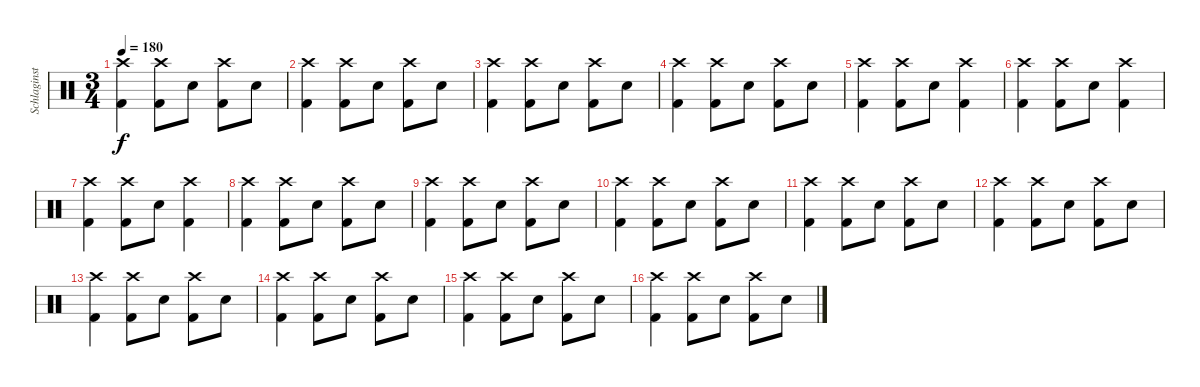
\track ("Schlaginstrumente - Auswahl" "Schlaginst") {instrument percussion}
\staff {score}
\articulation defaults
\ts (3 4)
\tempo 180
\clef neutral
\ks c
("Crash high (hit)" "Kick (hit) 2").4{dy f} ("Crash high (hit)" "Kick (hit) 2").8 "Snare (hit) 2".8 ("Crash high (hit)" "Kick (hit) 2").8 "Snare (hit) 2".8 |
("Crash high (hit)" "Kick (hit) 2").4 ("Crash high (hit)" "Kick (hit) 2").8 "Snare (hit) 2".8 ("Crash high (hit)" "Kick (hit) 2").8 "Snare (hit) 2".8 |
("Crash high (hit)" "Kick (hit) 2").4 ("Crash high (hit)" "Kick (hit) 2").8 "Snare (hit) 2".8 ("Crash high (hit)" "Kick (hit) 2").8 "Snare (hit) 2".8 |
("Crash high (hit)" "Kick (hit) 2").4 ("Crash high (hit)" "Kick (hit) 2").8 "Snare (hit) 2".8 ("Crash high (hit)" "Kick (hit) 2").8 "Snare (hit) 2".8 |
("Crash high (hit)" "Kick (hit) 2").4 ("Crash high (hit)" "Kick (hit) 2").8 "Snare (hit) 2".8 ("Crash high (hit)" "Kick (hit) 2").4 |
("Crash high (hit)" "Kick (hit) 2").4 ("Crash high (hit)" "Kick (hit) 2").8 "Snare (hit) 2".8 ("Crash high (hit)" "Kick (hit) 2").4 |
("Crash high (hit)" "Kick (hit) 2").4 ("Crash high (hit)" "Kick (hit) 2").8 "Snare (hit) 2".8 ("Crash high (hit)" "Kick (hit) 2").4 |
("Crash high (hit)" "Kick (hit) 2").4 ("Crash high (hit)" "Kick (hit) 2").8 "Snare (hit) 2".8 ("Crash high (hit)" "Kick (hit) 2").8 "Snare (hit) 2".8 |
("Crash high (hit)" "Kick (hit) 2").4 ("Crash high (hit)" "Kick (hit) 2").8 "Snare (hit) 2".8 ("Crash high (hit)" "Kick (hit) 2").8 "Snare (hit) 2".8 |
("Crash high (hit)" "Kick (hit) 2").4 ("Crash high (hit)" "Kick (hit) 2").8 "Snare (hit) 2".8 ("Crash high (hit)" "Kick (hit) 2").8 "Snare (hit) 2".8 |
("Crash high (hit)" "Kick (hit) 2").4 ("Crash high (hit)" "Kick (hit) 2").8 "Snare (hit) 2".8 ("Crash high (hit)" "Kick (hit) 2").8 "Snare (hit) 2".8 |
("Crash high (hit)" "Kick (hit) 2").4 ("Crash high (hit)" "Kick (hit) 2").8 "Snare (hit) 2".8 ("Crash high (hit)" "Kick (hit) 2").8 "Snare (hit) 2".8 |
("Crash high (hit)" "Kick (hit) 2").4 ("Crash high (hit)" "Kick (hit) 2").8 "Snare (hit) 2".8 ("Crash high (hit)" "Kick (hit) 2").8 "Snare (hit) 2".8 |
("Crash high (hit)" "Kick (hit) 2").4 ("Crash high (hit)" "Kick (hit) 2").8 "Snare (hit) 2".8 ("Crash high (hit)" "Kick (hit) 2").8 "Snare (hit) 2".8 |
("Crash high (hit)" "Kick (hit) 2").4 ("Crash high (hit)" "Kick (hit) 2").8 "Snare (hit) 2".8 ("Crash high (hit)" "Kick (hit) 2").8 "Snare (hit) 2".8 |
("Crash high (hit)" "Kick (hit) 2").4 ("Crash high (hit)" "Kick (hit) 2").8 "Snare (hit) 2".8 ("Crash high (hit)" "Kick (hit) 2").8 "Snare (hit) 2".8
